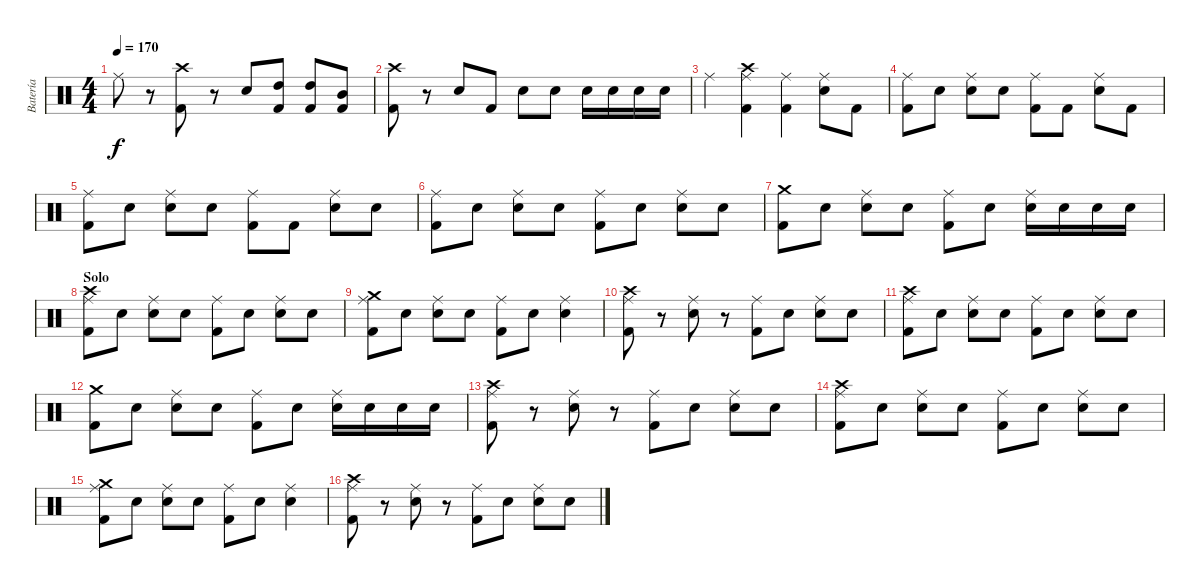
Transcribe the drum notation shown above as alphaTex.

\track ("Batería" "Batería") {instrument percussion}
\staff {score}
\articulation defaults
\ts (4 4)
\tempo 170
\clef neutral
\ks c "Ride (middle)".8{dy f}
r.8 ("Crash high (hit)" "Kick (hit) 2").8 r.8 "Snare (hit) 2".8 ("High Tom (hit)" "Kick (hit) 2").8 ("High Tom (hit)" "Kick (hit) 2").8 ("Mid Tom (hit)" "Kick (hit) 2").8 |
("Crash high (hit)" "Kick (hit) 2").8 r.8 "Snare (hit) 2".8 "Kick (hit) 2".8 "Snare (hit) 2".8 "Snare (hit) 2".8 "Snare (hit) 2".16 "Snare (hit) 2".16 "Snare (hit) 2".16 "Snare (hit) 2".16 |
"Ride (middle)".4 ("Ride (middle)" "Crash high (hit)" "Kick (hit) 2").4 ("Ride (middle)" "Kick (hit) 2").4 ("Ride (middle)" "Snare (hit) 2").8 "Kick (hit) 2".8 |
("Ride (middle)" "Kick (hit) 2").8 "Snare (hit)".8 ("Ride (middle)" "Snare (hit) 2").8 "Snare (hit)".8 ("Ride (middle)" "Kick (hit) 2").8 "Kick (hit) 2".8 ("Ride (middle)" "Snare (hit) 2").8 "Kick (hit) 2".8 |
("Ride (middle)" "Kick (hit) 2").8 "Snare (hit)".8 ("Ride (middle)" "Snare (hit) 2").8 "Snare (hit)".8 ("Ride (middle)" "Kick (hit) 2").8 "Kick (hit) 2".8 ("Ride (middle)" "Snare (hit) 2").8 "Snare (hit)".8 |
("Ride (middle)" "Kick (hit) 2").8 "Snare (hit)".8 ("Ride (middle)" "Snare (hit) 2").8 "Snare (hit)".8 ("Ride (middle)" "Kick (hit) 2").8 "Snare (hit)".8 ("Ride (middle)" "Snare (hit) 2").8 "Snare (hit)".8 |
("Crash medium (hit)" "Kick (hit) 2").8 "Snare (hit)".8 ("Ride (middle)" "Snare (hit) 2").8 "Snare (hit)".8 ("Ride (middle)" "Kick (hit) 2").8 "Snare (hit) 2".8 ("Ride (middle)" "Snare (hit)").16 "Snare (hit) 2".16 "Snare (hit) 2".16 "Snare (hit) 2".16 |
\section ("" "Solo")
("Crash high (hit)" "Ride (middle)" "Kick (hit) 2").8 "Snare (hit)".8 ("Ride (middle)" "Snare (hit) 2").8 "Snare (hit)".8 ("Ride (middle)" "Kick (hit) 2").8 "Snare (hit)".8 ("Ride (middle)" "Snare (hit) 2").8 "Snare (hit)".8 |
("Crash medium (hit)" "Ride (middle)" "Kick (hit) 2").8 "Snare (hit)".8 ("Ride (middle)" "Snare (hit) 2").8 "Snare (hit)".8 ("Ride (middle)" "Kick (hit) 2").8 "Snare (hit)".8 ("Ride (middle)" "Snare (hit) 2").4 |
("Crash high (hit)" "Ride (middle)" "Kick (hit) 2").8 r.8 ("Ride (middle)" "Snare (hit) 2").8 r.8 ("Ride (middle)" "Kick (hit) 2").8 "Snare (hit)".8 ("Ride (middle)" "Snare (hit) 2").8 "Snare (hit)".8 |
("Crash high (hit)" "Ride (middle)" "Kick (hit) 2").8 "Snare (hit)".8 ("Ride (middle)" "Snare (hit) 2").8 "Snare (hit)".8 ("Ride (middle)" "Kick (hit) 2").8 "Snare (hit)".8 ("Ride (middle)" "Snare (hit) 2").8 "Snare (hit)".8 |
("Crash medium (hit)" "Kick (hit) 2").8 "Snare (hit)".8 ("Ride (middle)" "Snare (hit) 2").8 "Snare (hit)".8 ("Ride (middle)" "Kick (hit) 2").8 "Snare (hit) 2".8 ("Ride (middle)" "Snare (hit)").16 "Snare (hit) 2".16 "Snare (hit) 2".16 "Snare (hit) 2".16 |
("Crash high (hit)" "Ride (middle)" "Kick (hit) 2").8 r.8 ("Ride (middle)" "Snare (hit) 2").8 r.8 ("Ride (middle)" "Kick (hit) 2").8 "Snare (hit)".8 ("Ride (middle)" "Snare (hit) 2").8 "Snare (hit)".8 |
("Crash high (hit)" "Ride (middle)" "Kick (hit) 2").8 "Snare (hit)".8 ("Ride (middle)" "Snare (hit) 2").8 "Snare (hit)".8 ("Ride (middle)" "Kick (hit) 2").8 "Snare (hit)".8 ("Ride (middle)" "Snare (hit) 2").8 "Snare (hit)".8 |
("Crash medium (hit)" "Ride (middle)" "Kick (hit) 2").8 "Snare (hit)".8 ("Ride (middle)" "Snare (hit) 2").8 "Snare (hit)".8 ("Ride (middle)" "Kick (hit) 2").8 "Snare (hit)".8 ("Ride (middle)" "Snare (hit) 2").4 |
("Crash high (hit)" "Ride (middle)" "Kick (hit) 2").8 r.8 ("Ride (middle)" "Snare (hit) 2").8 r.8 ("Ride (middle)" "Kick (hit) 2").8 "Snare (hit)".8 ("Ride (middle)" "Snare (hit) 2").8 "Snare (hit)".8
